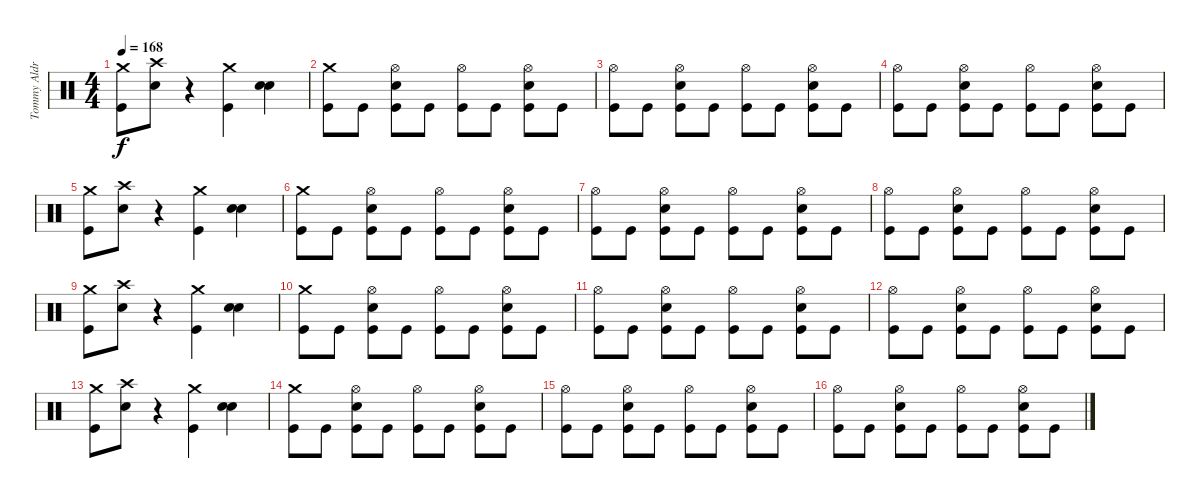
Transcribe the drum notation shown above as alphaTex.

\track ("Tommy Aldrige" "Tommy Aldr") {instrument percussion}
\staff {score}
\articulation defaults
\ts (4 4)
\tempo 168
\clef neutral
\ks c
("Crash medium (hit)" "Kick (hit)").8{dy f} ("Crash high (hit)" "Snare (hit) 2").8 r.4 ("Crash medium (hit)" "Kick (hit)").4 ("Snare (hit) 2" "Snare (hit) 2").4{bd 240} |
("Crash medium (hit)" "Kick (hit)").8 "Kick (hit)".8 ("Hi-Hat (open)" "Snare (hit) 2" "Kick (hit)").8 "Kick (hit)".8 ("Hi-Hat (open)" "Kick (hit)").8 "Kick (hit)".8 ("Hi-Hat (open)" "Snare (hit) 2" "Kick (hit)").8 "Kick (hit)".8 |
("Hi-Hat (open)" "Kick (hit)").8 "Kick (hit)".8 ("Hi-Hat (open)" "Snare (hit) 2" "Kick (hit)").8 "Kick (hit)".8 ("Hi-Hat (open)" "Kick (hit)").8 "Kick (hit)".8 ("Hi-Hat (open)" "Snare (hit) 2" "Kick (hit)").8 "Kick (hit)".8 |
("Hi-Hat (open)" "Kick (hit)").8 "Kick (hit)".8 ("Hi-Hat (open)" "Snare (hit) 2" "Kick (hit)").8 "Kick (hit)".8 ("Hi-Hat (open)" "Kick (hit)").8 "Kick (hit)".8 ("Hi-Hat (open)" "Snare (hit) 2" "Kick (hit)").8 "Kick (hit)".8 |
("Crash medium (hit)" "Kick (hit)").8 ("Crash high (hit)" "Snare (hit) 2").8 r.4 ("Crash medium (hit)" "Kick (hit)").4 ("Snare (hit) 2" "Snare (hit) 2").4{bd 240} |
("Crash medium (hit)" "Kick (hit)").8 "Kick (hit)".8 ("Hi-Hat (open)" "Snare (hit) 2" "Kick (hit)").8 "Kick (hit)".8 ("Hi-Hat (open)" "Kick (hit)").8 "Kick (hit)".8 ("Hi-Hat (open)" "Snare (hit) 2" "Kick (hit)").8 "Kick (hit)".8 |
("Hi-Hat (open)" "Kick (hit)").8 "Kick (hit)".8 ("Hi-Hat (open)" "Snare (hit) 2" "Kick (hit)").8 "Kick (hit)".8 ("Hi-Hat (open)" "Kick (hit)").8 "Kick (hit)".8 ("Hi-Hat (open)" "Snare (hit) 2" "Kick (hit)").8 "Kick (hit)".8 |
("Hi-Hat (open)" "Kick (hit)").8 "Kick (hit)".8 ("Hi-Hat (open)" "Snare (hit) 2" "Kick (hit)").8 "Kick (hit)".8 ("Hi-Hat (open)" "Kick (hit)").8 "Kick (hit)".8 ("Hi-Hat (open)" "Snare (hit) 2" "Kick (hit)").8 "Kick (hit)".8 |
("Crash medium (hit)" "Kick (hit)").8 ("Crash high (hit)" "Snare (hit) 2").8 r.4 ("Crash medium (hit)" "Kick (hit)").4 ("Snare (hit) 2" "Snare (hit) 2").4{bd 240} |
("Crash medium (hit)" "Kick (hit)").8 "Kick (hit)".8 ("Hi-Hat (open)" "Snare (hit) 2" "Kick (hit)").8 "Kick (hit)".8 ("Hi-Hat (open)" "Kick (hit)").8 "Kick (hit)".8 ("Hi-Hat (open)" "Snare (hit) 2" "Kick (hit)").8 "Kick (hit)".8 |
("Hi-Hat (open)" "Kick (hit)").8 "Kick (hit)".8 ("Hi-Hat (open)" "Snare (hit) 2" "Kick (hit)").8 "Kick (hit)".8 ("Hi-Hat (open)" "Kick (hit)").8 "Kick (hit)".8 ("Hi-Hat (open)" "Snare (hit) 2" "Kick (hit)").8 "Kick (hit)".8 |
("Hi-Hat (open)" "Kick (hit)").8 "Kick (hit)".8 ("Hi-Hat (open)" "Snare (hit) 2" "Kick (hit)").8 "Kick (hit)".8 ("Hi-Hat (open)" "Kick (hit)").8 "Kick (hit)".8 ("Hi-Hat (open)" "Snare (hit) 2" "Kick (hit)").8 "Kick (hit)".8 |
("Crash medium (hit)" "Kick (hit)").8 ("Crash high (hit)" "Snare (hit) 2").8 r.4 ("Crash medium (hit)" "Kick (hit)").4 ("Snare (hit) 2" "Snare (hit) 2").4{bd 240} |
("Crash medium (hit)" "Kick (hit)").8 "Kick (hit)".8 ("Hi-Hat (open)" "Snare (hit) 2" "Kick (hit)").8 "Kick (hit)".8 ("Hi-Hat (open)" "Kick (hit)").8 "Kick (hit)".8 ("Hi-Hat (open)" "Snare (hit) 2" "Kick (hit)").8 "Kick (hit)".8 |
("Hi-Hat (open)" "Kick (hit)").8 "Kick (hit)".8 ("Hi-Hat (open)" "Snare (hit) 2" "Kick (hit)").8 "Kick (hit)".8 ("Hi-Hat (open)" "Kick (hit)").8 "Kick (hit)".8 ("Hi-Hat (open)" "Snare (hit) 2" "Kick (hit)").8 "Kick (hit)".8 |
("Hi-Hat (open)" "Kick (hit)").8 "Kick (hit)".8 ("Hi-Hat (open)" "Snare (hit) 2" "Kick (hit)").8 "Kick (hit)".8 ("Hi-Hat (open)" "Kick (hit)").8 "Kick (hit)".8 ("Hi-Hat (open)" "Snare (hit) 2" "Kick (hit)").8 "Kick (hit)".8
